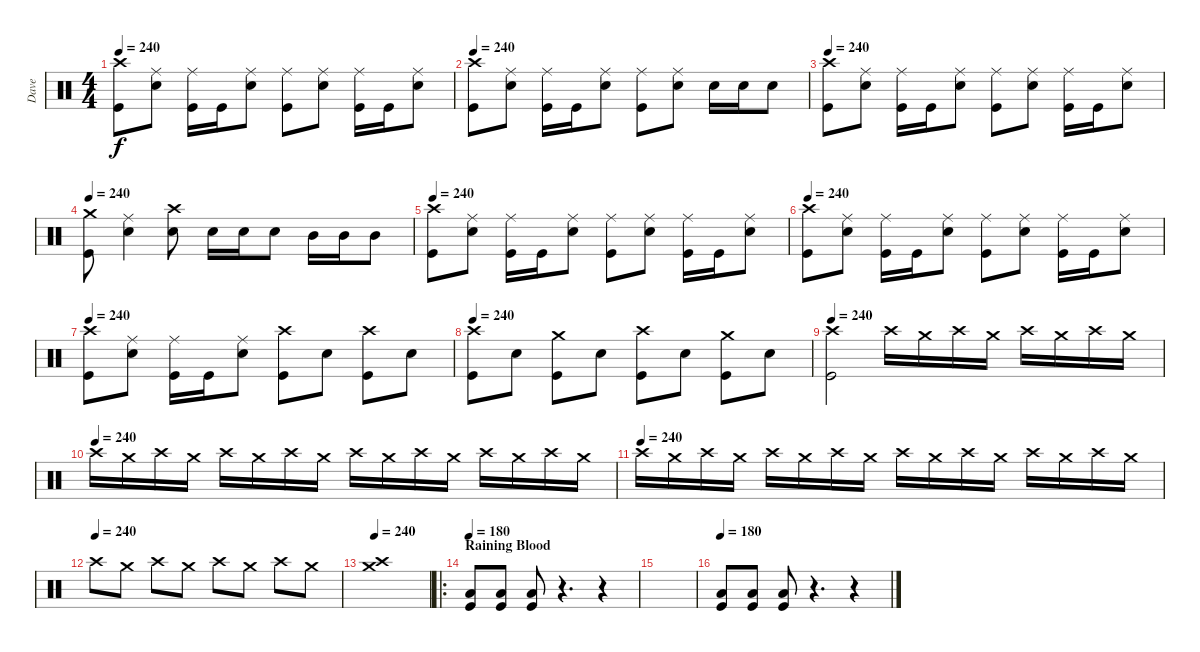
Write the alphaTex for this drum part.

\track ("Dave" "Dave") {instrument percussion}
\staff {score}
\articulation defaults
\ts (4 4)
\tempo 240
\clef neutral
\ks c
("Crash high (hit)" "Kick (hit)").8{dy f} ("Ride (middle)" "Snare (hit) 2").8 ("Ride (middle)" "Kick (hit)").16 "Kick (hit)".16 ("Ride (middle)" "Snare (hit) 2").8 ("Ride (middle)" "Kick (hit)").8 ("Ride (middle)" "Snare (hit) 2").8 ("Ride (middle)" "Kick (hit)").16 "Kick (hit)".16 ("Ride (middle)" "Snare (hit) 2").8 |
\tempo 240
("Crash high (hit)" "Kick (hit)").8 ("Ride (middle)" "Snare (hit) 2").8 ("Ride (middle)" "Kick (hit)").16 "Kick (hit)".16 ("Ride (middle)" "Snare (hit) 2").8 ("Ride (middle)" "Kick (hit)").8 ("Ride (middle)" "Snare (hit) 2").8 "Snare (hit) 2".16 "Snare (hit) 2".16 "Snare (hit) 2".8 |
\tempo 240
("Crash high (hit)" "Kick (hit)").8 ("Ride (middle)" "Snare (hit) 2").8 ("Ride (middle)" "Kick (hit)").16 "Kick (hit)".16 ("Ride (middle)" "Snare (hit) 2").8 ("Ride (middle)" "Kick (hit)").8 ("Ride (middle)" "Snare (hit) 2").8 ("Ride (middle)" "Kick (hit)").16 "Kick (hit)".16 ("Ride (middle)" "Snare (hit) 2").8 |
\tempo 240
("Crash medium (hit)" "Kick (hit)").8 ("Ride (middle)" "Snare (hit) 2").4 ("Crash high (hit)" "Snare (hit) 2").8 "Snare (hit) 2".16 "Snare (hit) 2".16 "Snare (hit) 2".8 "Mid Tom (hit)".16 "Mid Tom (hit)".16 "Mid Tom (hit)".8 |
\tempo 240
("Crash high (hit)" "Kick (hit)").8 ("Ride (middle)" "Snare (hit) 2").8 ("Ride (middle)" "Kick (hit)").16 "Kick (hit)".16 ("Ride (middle)" "Snare (hit) 2").8 ("Ride (middle)" "Kick (hit)").8 ("Ride (middle)" "Snare (hit) 2").8 ("Ride (middle)" "Kick (hit)").16 "Kick (hit)".16 ("Ride (middle)" "Snare (hit) 2").8 |
\tempo 240
("Crash high (hit)" "Kick (hit)").8 ("Ride (middle)" "Snare (hit) 2").8 ("Ride (middle)" "Kick (hit)").16 "Kick (hit)".16 ("Ride (middle)" "Snare (hit) 2").8 ("Ride (middle)" "Kick (hit)").8 ("Ride (middle)" "Snare (hit) 2").8 ("Ride (middle)" "Kick (hit)").16 "Kick (hit)".16 ("Ride (middle)" "Snare (hit) 2").8 |
\tempo 240
("Crash high (hit)" "Kick (hit)").8 ("Ride (middle)" "Snare (hit) 2").8 ("Ride (middle)" "Kick (hit)").16 "Kick (hit)".16 ("Ride (middle)" "Snare (hit) 2").8 ("Crash high (hit)" "Kick (hit)").8 "Snare (hit) 2".8 ("Crash high (hit)" "Kick (hit)").8 "Snare (hit) 2".8 |
\tempo 240
("Crash high (hit)" "Kick (hit)").8 "Snare (hit) 2".8 ("Crash medium (hit)" "Kick (hit)").8 "Snare (hit) 2".8 ("Crash high (hit)" "Kick (hit)").8 "Snare (hit) 2".8 ("Crash medium (hit)" "Kick (hit)").8 "Snare (hit) 2".8 |
\tempo 240
("Crash high (hit)" "Kick (hit)").2 "Crash high (hit)".16 "Crash medium (hit)".16 "Crash high (hit)".16 "Crash medium (hit)".16 "Crash high (hit)".16 "Crash medium (hit)".16 "Crash high (hit)".16 "Crash medium (hit)".16 |
\tempo (240)
"Crash high (hit)".16 "Crash medium (hit)".16 "Crash high (hit)".16 "Crash medium (hit)".16 "Crash high (hit)".16 "Crash medium (hit)".16 "Crash high (hit)".16 "Crash medium (hit)".16 "Crash high (hit)".16 "Crash medium (hit)".16 "Crash high (hit)".16 "Crash medium (hit)".16 "Crash high (hit)".16 "Crash medium (hit)".16 "Crash high (hit)".16 "Crash medium (hit)".16 |
\tempo (240)
"Crash high (hit)".16 "Crash medium (hit)".16 "Crash high (hit)".16 "Crash medium (hit)".16 "Crash high (hit)".16 "Crash medium (hit)".16 "Crash high (hit)".16 "Crash medium (hit)".16 "Crash high (hit)".16 "Crash medium (hit)".16 "Crash high (hit)".16 "Crash medium (hit)".16 "Crash high (hit)".16 "Crash medium (hit)".16 "Crash high (hit)".16 "Crash medium (hit)".16 |
\tempo (240)
"Crash high (hit)".8 "Crash medium (hit)".8 "Crash high (hit)".8 "Crash medium (hit)".8 "Crash high (hit)".8 "Crash medium (hit)".8 "Crash high (hit)".8 "Crash medium (hit)".8 |
\tempo 240
("Crash high (hit)" "Crash medium (hit)").1 |
\ro
\section ("" "Raining Blood")
\tempo 180
("Low Floor Tom (hit)" "Kick (hit)").8 ("Low Floor Tom (hit)" "Kick (hit)").8 ("Low Floor Tom (hit)" "Kick (hit)").8 r.4{d} r.4 |
|
\tempo 180
("Low Floor Tom (hit)" "Kick (hit)").8 ("Low Floor Tom (hit)" "Kick (hit)").8 ("Low Floor Tom (hit)" "Kick (hit)").8 r.4{d} r.4
